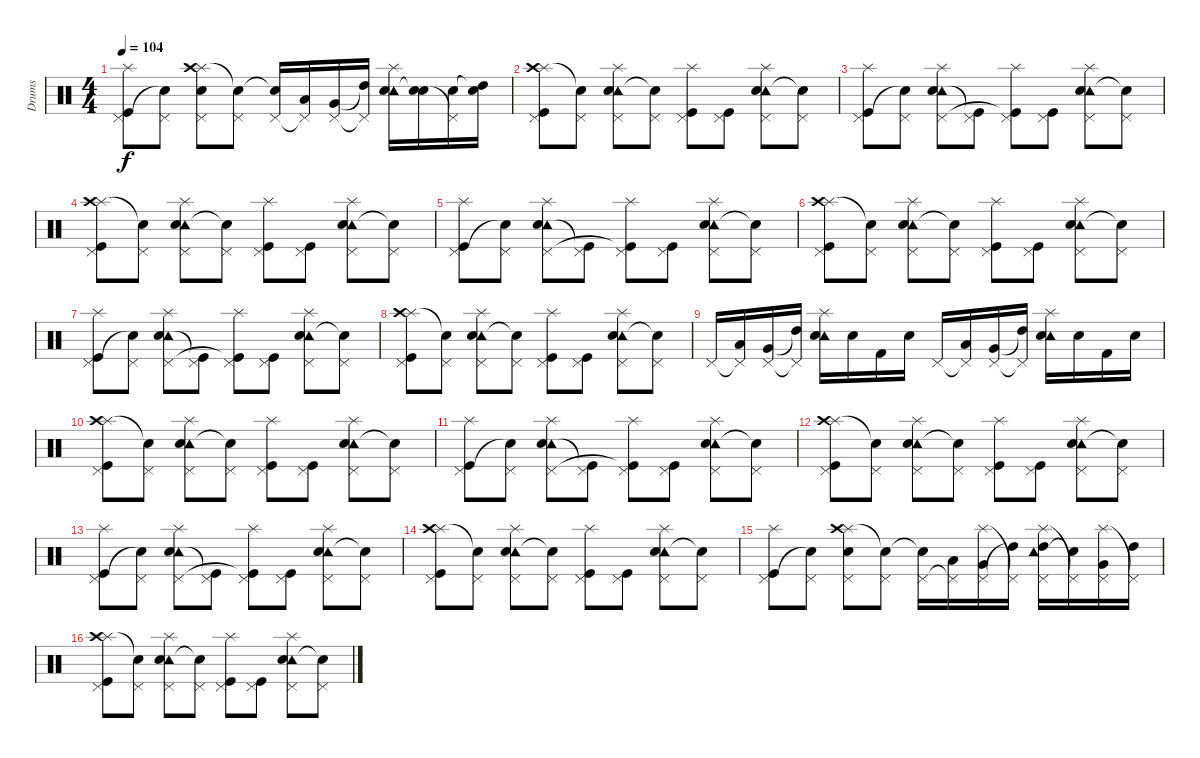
\track ("Drums" "Drums") {instrument percussion}
\staff {score}
\articulation defaults
\ts (4 4)
\tempo 104
\clef neutral
\ks c
("Splash (hit)" "Pedal Hi-Hat (hit)" "Kick (hit)").8{dy f} ("Pedal Hi-Hat (hit)" "Snare (hit)"{t}).8 ("Splash (hit)" "Crash high (hit)" "Pedal Hi-Hat (hit)" "Snare (hit) 2").8 ("Pedal Hi-Hat (hit)" "Snare (hit)"{t}).8 ("Pedal Hi-Hat (hit)" "Snare (hit)"{t}).16 ("Pedal Hi-Hat (hit)"{t} "Low Tom (hit)").16 ("Pedal Hi-Hat (hit)" "Very Low Tom (hit)").16 ("Pedal Hi-Hat (hit)"{t} "High Tom (hit)"{t}).16 ("Splash (hit)" "Tambourine (hit)" "Electric Snare (hit)").16 ("Electric Snare (hit)" "Snare (hit)"{t}).16 ("Pedal Hi-Hat (hit)"{t} "Snare (hit) 2").16 ("Electric Snare (hit)" "High Tom (hit)"{t}).16 |
("Splash (hit)" "Crash high (hit)" "Pedal Hi-Hat (hit)" "Kick (hit)").8 ("Pedal Hi-Hat (hit)" "Snare (hit)"{t}).8 ("Splash (hit)" "Tambourine (hit)" "Pedal Hi-Hat (hit)" "Snare (hit) 2").8 ("Pedal Hi-Hat (hit)" "Snare (hit)"{t}).8 ("Splash (hit)" "Pedal Hi-Hat (hit)" "Kick (hit)").8 ("Pedal Hi-Hat (hit)" "Kick (hit)").8 ("Splash (hit)" "Tambourine (hit)" "Pedal Hi-Hat (hit)" "Snare (hit) 2").8 ("Pedal Hi-Hat (hit)" "Snare (hit)"{t}).8 |
("Splash (hit)" "Pedal Hi-Hat (hit)" "Kick (hit)").8 ("Pedal Hi-Hat (hit)" "Snare (hit)"{t}).8 ("Splash (hit)" "Tambourine (hit)" "Pedal Hi-Hat (hit)" "Snare (hit) 2").8 ("Pedal Hi-Hat (hit)" "Kick (hit)"{t}).8 ("Splash (hit)" "Pedal Hi-Hat (hit)" "Kick (hit)"{t}).8 ("Pedal Hi-Hat (hit)" "Kick (hit)").8 ("Splash (hit)" "Tambourine (hit)" "Pedal Hi-Hat (hit)" "Snare (hit) 2").8 ("Pedal Hi-Hat (hit)" "Snare (hit) 2"{t}).8 |
("Splash (hit)" "Crash high (hit)" "Pedal Hi-Hat (hit)" "Kick (hit)").8 ("Pedal Hi-Hat (hit)" "Snare (hit)"{t}).8 ("Splash (hit)" "Tambourine (hit)" "Pedal Hi-Hat (hit)" "Snare (hit) 2").8 ("Pedal Hi-Hat (hit)" "Snare (hit)"{t}).8 ("Splash (hit)" "Pedal Hi-Hat (hit)" "Kick (hit)").8 ("Pedal Hi-Hat (hit)" "Kick (hit)").8 ("Splash (hit)" "Tambourine (hit)" "Pedal Hi-Hat (hit)" "Snare (hit) 2").8 ("Pedal Hi-Hat (hit)" "Snare (hit)"{t}).8 |
("Splash (hit)" "Pedal Hi-Hat (hit)" "Kick (hit)").8 ("Pedal Hi-Hat (hit)" "Snare (hit)"{t}).8 ("Splash (hit)" "Tambourine (hit)" "Pedal Hi-Hat (hit)" "Snare (hit) 2").8 ("Pedal Hi-Hat (hit)" "Kick (hit)"{t}).8 ("Splash (hit)" "Pedal Hi-Hat (hit)" "Kick (hit)"{t}).8 ("Pedal Hi-Hat (hit)" "Kick (hit)").8 ("Splash (hit)" "Tambourine (hit)" "Pedal Hi-Hat (hit)" "Snare (hit) 2").8 ("Pedal Hi-Hat (hit)" "Snare (hit) 2"{t}).8 |
("Splash (hit)" "Crash high (hit)" "Pedal Hi-Hat (hit)" "Kick (hit)").8 ("Pedal Hi-Hat (hit)" "Snare (hit)"{t}).8 ("Splash (hit)" "Tambourine (hit)" "Pedal Hi-Hat (hit)" "Snare (hit) 2").8 ("Pedal Hi-Hat (hit)" "Snare (hit)"{t}).8 ("Splash (hit)" "Pedal Hi-Hat (hit)" "Kick (hit)").8 ("Pedal Hi-Hat (hit)" "Kick (hit)").8 ("Splash (hit)" "Tambourine (hit)" "Pedal Hi-Hat (hit)" "Snare (hit) 2").8 ("Pedal Hi-Hat (hit)" "Snare (hit)"{t}).8 |
("Splash (hit)" "Pedal Hi-Hat (hit)" "Kick (hit)").8 ("Pedal Hi-Hat (hit)" "Snare (hit)"{t}).8 ("Splash (hit)" "Tambourine (hit)" "Pedal Hi-Hat (hit)" "Snare (hit) 2").8 ("Pedal Hi-Hat (hit)" "Kick (hit)"{t}).8 ("Splash (hit)" "Pedal Hi-Hat (hit)" "Kick (hit)"{t}).8 ("Pedal Hi-Hat (hit)" "Kick (hit)").8 ("Splash (hit)" "Tambourine (hit)" "Pedal Hi-Hat (hit)" "Snare (hit) 2").8 ("Pedal Hi-Hat (hit)" "Snare (hit) 2"{t}).8 |
("Splash (hit)" "Crash high (hit)" "Pedal Hi-Hat (hit)" "Kick (hit)").8 ("Pedal Hi-Hat (hit)" "Snare (hit)"{t}).8 ("Splash (hit)" "Tambourine (hit)" "Pedal Hi-Hat (hit)" "Snare (hit) 2").8 ("Pedal Hi-Hat (hit)" "Snare (hit)"{t}).8 ("Splash (hit)" "Pedal Hi-Hat (hit)" "Kick (hit)").8 ("Pedal Hi-Hat (hit)" "Kick (hit)").8 ("Splash (hit)" "Tambourine (hit)" "Pedal Hi-Hat (hit)" "Snare (hit) 2").8 ("Pedal Hi-Hat (hit)" "Snare (hit)"{t}).8 |
"Pedal Hi-Hat (hit)".16 ("Pedal Hi-Hat (hit)"{t} "Low Tom (hit)").16 ("Pedal Hi-Hat (hit)" "Very Low Tom (hit)").16 ("Pedal Hi-Hat (hit)"{t} "High Tom (hit)"{t}).16 ("Splash (hit)" "Tambourine (hit)" "Electric Snare (hit)").16 "Snare (hit) 2".16 "Kick (hit) 2".16 "Snare (hit) 2".16 "Pedal Hi-Hat (hit)".16 ("Pedal Hi-Hat (hit)"{t} "Low Tom (hit)").16 ("Pedal Hi-Hat (hit)" "Very Low Tom (hit)").16 ("Pedal Hi-Hat (hit)"{t} "High Tom (hit)"{t}).16 ("Splash (hit)" "Tambourine (hit)" "Electric Snare (hit)").16 "Snare (hit) 2".16 "Kick (hit) 2".16 "Snare (hit) 2".16 |
("Splash (hit)" "Crash high (hit)" "Pedal Hi-Hat (hit)" "Kick (hit)").8 ("Pedal Hi-Hat (hit)" "Snare (hit)"{t}).8 ("Splash (hit)" "Tambourine (hit)" "Pedal Hi-Hat (hit)" "Snare (hit) 2").8 ("Pedal Hi-Hat (hit)" "Snare (hit)"{t}).8 ("Splash (hit)" "Pedal Hi-Hat (hit)" "Kick (hit)").8 ("Pedal Hi-Hat (hit)" "Kick (hit)").8 ("Splash (hit)" "Tambourine (hit)" "Pedal Hi-Hat (hit)" "Snare (hit) 2").8 ("Pedal Hi-Hat (hit)" "Snare (hit)"{t}).8 |
("Splash (hit)" "Pedal Hi-Hat (hit)" "Kick (hit)").8 ("Pedal Hi-Hat (hit)" "Snare (hit)"{t}).8 ("Splash (hit)" "Tambourine (hit)" "Pedal Hi-Hat (hit)" "Snare (hit) 2").8 ("Pedal Hi-Hat (hit)" "Kick (hit)"{t}).8 ("Splash (hit)" "Pedal Hi-Hat (hit)" "Kick (hit)"{t}).8 ("Pedal Hi-Hat (hit)" "Kick (hit)").8 ("Splash (hit)" "Tambourine (hit)" "Pedal Hi-Hat (hit)" "Snare (hit) 2").8 ("Pedal Hi-Hat (hit)" "Snare (hit) 2"{t}).8 |
("Splash (hit)" "Crash high (hit)" "Pedal Hi-Hat (hit)" "Kick (hit)").8 ("Pedal Hi-Hat (hit)" "Snare (hit)"{t}).8 ("Splash (hit)" "Tambourine (hit)" "Pedal Hi-Hat (hit)" "Snare (hit) 2").8 ("Pedal Hi-Hat (hit)" "Snare (hit)"{t}).8 ("Splash (hit)" "Pedal Hi-Hat (hit)" "Kick (hit)").8 ("Pedal Hi-Hat (hit)" "Kick (hit)").8 ("Splash (hit)" "Tambourine (hit)" "Pedal Hi-Hat (hit)" "Snare (hit) 2").8 ("Pedal Hi-Hat (hit)" "Snare (hit)"{t}).8 |
("Splash (hit)" "Pedal Hi-Hat (hit)" "Kick (hit)").8 ("Pedal Hi-Hat (hit)" "Snare (hit)"{t}).8 ("Splash (hit)" "Tambourine (hit)" "Pedal Hi-Hat (hit)" "Snare (hit) 2").8 ("Pedal Hi-Hat (hit)" "Kick (hit)"{t}).8 ("Splash (hit)" "Pedal Hi-Hat (hit)" "Kick (hit)"{t}).8 ("Pedal Hi-Hat (hit)" "Kick (hit)").8 ("Splash (hit)" "Tambourine (hit)" "Pedal Hi-Hat (hit)" "Snare (hit) 2").8 ("Pedal Hi-Hat (hit)" "Snare (hit) 2"{t}).8 |
("Splash (hit)" "Crash high (hit)" "Pedal Hi-Hat (hit)" "Kick (hit)").8 ("Pedal Hi-Hat (hit)" "Snare (hit)"{t}).8 ("Splash (hit)" "Tambourine (hit)" "Pedal Hi-Hat (hit)" "Snare (hit) 2").8 ("Pedal Hi-Hat (hit)" "Snare (hit)"{t}).8 ("Splash (hit)" "Pedal Hi-Hat (hit)" "Kick (hit)").8 ("Pedal Hi-Hat (hit)" "Kick (hit)").8 ("Splash (hit)" "Tambourine (hit)" "Pedal Hi-Hat (hit)" "Snare (hit) 2").8 ("Pedal Hi-Hat (hit)" "Snare (hit)"{t}).8 |
("Splash (hit)" "Pedal Hi-Hat (hit)" "Kick (hit)").8 ("Pedal Hi-Hat (hit)" "Snare (hit)"{t}).8 ("Splash (hit)" "Crash high (hit)" "Pedal Hi-Hat (hit)" "Snare (hit) 2").8 ("Pedal Hi-Hat (hit)" "Snare (hit)"{t}).8 ("Pedal Hi-Hat (hit)" "Snare (hit)"{t}).16 ("Pedal Hi-Hat (hit)"{t} "Low Tom (hit)").16 ("Splash (hit)" "Pedal Hi-Hat (hit)" "Very Low Tom (hit)").16 ("Pedal Hi-Hat (hit)"{t} "High Tom (hit)"{t}).16 ("Splash (hit)" "Tambourine (hit)" "Pedal Hi-Hat (hit)" "High Tom (hit)").16 ("Pedal Hi-Hat (hit)"{t} "Snare (hit)"{t}).16 ("Splash (hit)" "Pedal Hi-Hat (hit)" "Very Low Tom (hit)").16 ("Pedal Hi-Hat (hit)"{t} "High Tom (hit)").16 |
("Splash (hit)" "Crash high (hit)" "Pedal Hi-Hat (hit)" "Kick (hit)").8 ("Pedal Hi-Hat (hit)" "Snare (hit)"{t}).8 ("Splash (hit)" "Tambourine (hit)" "Pedal Hi-Hat (hit)" "Snare (hit) 2").8 ("Pedal Hi-Hat (hit)" "Snare (hit)"{t}).8 ("Splash (hit)" "Pedal Hi-Hat (hit)" "Kick (hit)").8 ("Pedal Hi-Hat (hit)" "Kick (hit)").8 ("Splash (hit)" "Tambourine (hit)" "Pedal Hi-Hat (hit)" "Snare (hit) 2").8 ("Pedal Hi-Hat (hit)" "Snare (hit)"{t}).8
